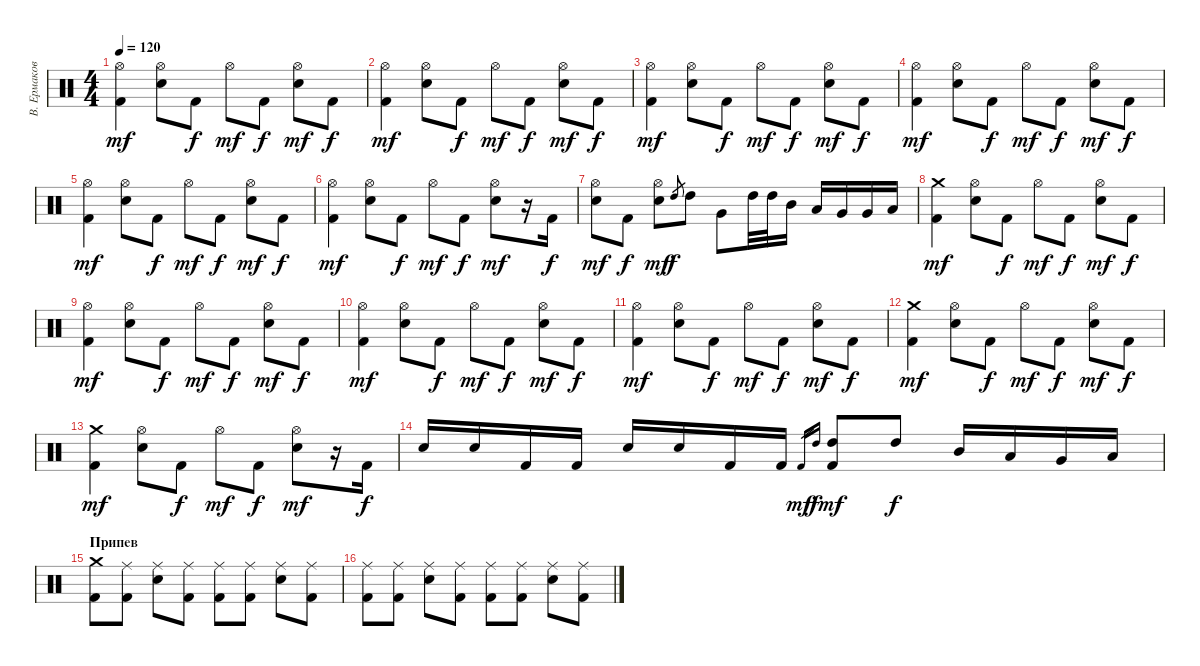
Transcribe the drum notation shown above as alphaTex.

\track ("В. Ермаков" "В. Ермаков") {instrument percussion}
\staff {score}
\articulation defaults
\ts (4 4)
\tempo 120
\clef neutral
\ks c
("Hi-Hat (open)" "Kick (hit) 2").4{dy mf} ("Hi-Hat (open)" "Electric Snare (hit)").8 "Kick (hit) 2".8{dy f} "Hi-Hat (open)".8{dy mf} "Kick (hit) 2".8{dy f} ("Hi-Hat (open)" "Electric Snare (hit)").8{dy mf} "Kick (hit) 2".8{dy f} |
("Hi-Hat (open)" "Kick (hit) 2").4{dy mf} ("Hi-Hat (open)" "Electric Snare (hit)").8 "Kick (hit) 2".8{dy f} "Hi-Hat (open)".8{dy mf} "Kick (hit) 2".8{dy f} ("Hi-Hat (open)" "Electric Snare (hit)").8{dy mf} "Kick (hit) 2".8{dy f} |
("Hi-Hat (open)" "Kick (hit) 2").4{dy mf} ("Hi-Hat (open)" "Electric Snare (hit)").8 "Kick (hit) 2".8{dy f} "Hi-Hat (open)".8{dy mf} "Kick (hit) 2".8{dy f} ("Hi-Hat (open)" "Electric Snare (hit)").8{dy mf} "Kick (hit) 2".8{dy f} |
("Hi-Hat (open)" "Kick (hit) 2").4{dy mf} ("Hi-Hat (open)" "Electric Snare (hit)").8 "Kick (hit) 2".8{dy f} "Hi-Hat (open)".8{dy mf} "Kick (hit) 2".8{dy f} ("Hi-Hat (open)" "Electric Snare (hit)").8{dy mf} "Kick (hit) 2".8{dy f} |
("Hi-Hat (open)" "Kick (hit) 2").4{dy mf} ("Hi-Hat (open)" "Electric Snare (hit)").8 "Kick (hit) 2".8{dy f} "Hi-Hat (open)".8{dy mf} "Kick (hit) 2".8{dy f} ("Hi-Hat (open)" "Electric Snare (hit)").8{dy mf} "Kick (hit) 2".8{dy f} |
("Hi-Hat (open)" "Kick (hit) 2").4{dy mf} ("Hi-Hat (open)" "Electric Snare (hit)").8 "Kick (hit) 2".8{dy f} "Hi-Hat (open)".8{dy mf} "Kick (hit) 2".8{dy f} ("Hi-Hat (open)" "Electric Snare (hit)").8{dy mf} r.16 "Kick (hit) 2".16{dy f} |
("Hi-Hat (open)" "Electric Snare (hit)").8{dy mf} "Kick (hit) 2".8{dy f} ("Hi-Hat (open)" "Electric Snare (hit)").8{dy mf} "High Tom (hit)".8{gr dy f} "High Tom (hit)".8 "Very Low Tom (hit)".8 "High Tom (hit)".32 "High Tom (hit)".32 "Mid Tom (hit)".16 "Low Tom (hit)".16 "Very Low Tom (hit)".16 "Very Low Tom (hit)".16 "Low Floor Tom (hit)".16 |
("Crash medium (hit)" "Kick (hit) 2").4{dy mf} ("Hi-Hat (open)" "Electric Snare (hit)").8 "Kick (hit) 2".8{dy f} "Hi-Hat (open)".8{dy mf} "Kick (hit) 2".8{dy f} ("Hi-Hat (open)" "Electric Snare (hit)").8{dy mf} "Kick (hit) 2".8{dy f} |
("Hi-Hat (open)" "Kick (hit) 2").4{dy mf} ("Hi-Hat (open)" "Electric Snare (hit)").8 "Kick (hit) 2".8{dy f} "Hi-Hat (open)".8{dy mf} "Kick (hit) 2".8{dy f} ("Hi-Hat (open)" "Electric Snare (hit)").8{dy mf} "Kick (hit) 2".8{dy f} |
("Hi-Hat (open)" "Kick (hit) 2").4{dy mf} ("Hi-Hat (open)" "Electric Snare (hit)").8 "Kick (hit) 2".8{dy f} "Hi-Hat (open)".8{dy mf} "Kick (hit) 2".8{dy f} ("Hi-Hat (open)" "Electric Snare (hit)").8{dy mf} "Kick (hit) 2".8{dy f} |
("Hi-Hat (open)" "Kick (hit) 2").4{dy mf} ("Hi-Hat (open)" "Electric Snare (hit)").8 "Kick (hit) 2".8{dy f} "Hi-Hat (open)".8{dy mf} "Kick (hit) 2".8{dy f} ("Hi-Hat (open)" "Electric Snare (hit)").8{dy mf} "Kick (hit) 2".8{dy f} |
("Crash medium (hit)" "Kick (hit) 2").4{dy mf} ("Hi-Hat (open)" "Electric Snare (hit)").8 "Kick (hit) 2".8{dy f} "Hi-Hat (open)".8{dy mf} "Kick (hit) 2".8{dy f} ("Hi-Hat (open)" "Electric Snare (hit)").8{dy mf} "Kick (hit) 2".8{dy f} |
("Crash medium (hit)" "Kick (hit) 2").4{dy mf} ("Hi-Hat (open)" "Electric Snare (hit)").8 "Kick (hit) 2".8{dy f} "Hi-Hat (open)".8{dy mf} "Kick (hit) 2".8{dy f} ("Hi-Hat (open)" "Electric Snare (hit)").8{dy mf} r.16 "Kick (hit) 2".16{dy f} |
"Electric Snare (hit)".16 "Electric Snare (hit)".16 "Kick (hit) 2".16 "Kick (hit) 2".16 "Electric Snare (hit)".16 "Electric Snare (hit)".16 "Kick (hit) 2".16 "Kick (hit) 2".16 "Kick (hit) 2".16{gr dy mf} "High Tom (hit)".16{gr dy f} ("Kick (hit) 2" "High Tom (hit)").8{dy mf} "High Tom (hit)".8{dy f} "Mid Tom (hit)".16 "Low Tom (hit)".16 "Very Low Tom (hit)".16 "Low Floor Tom (hit)".16 |
\section ("" "Припев")
("Crash medium (hit)" "Kick (hit) 2").8 ("Ride (middle)" "Kick (hit) 2").8 ("Ride (middle)" "Electric Snare (hit)").8 ("Ride (middle)" "Kick (hit) 2").8 ("Ride (middle)" "Kick (hit) 2").8 ("Ride (middle)" "Kick (hit) 2").8 ("Ride (middle)" "Electric Snare (hit)").8 ("Ride (middle)" "Kick (hit) 2").8 |
("Ride (middle)" "Kick (hit) 2").8 ("Ride (middle)" "Kick (hit) 2").8 ("Ride (middle)" "Electric Snare (hit)").8 ("Ride (middle)" "Kick (hit) 2").8 ("Ride (middle)" "Kick (hit) 2").8 ("Ride (middle)" "Kick (hit) 2").8 ("Ride (middle)" "Electric Snare (hit)").8 ("Ride (middle)" "Kick (hit) 2").8
